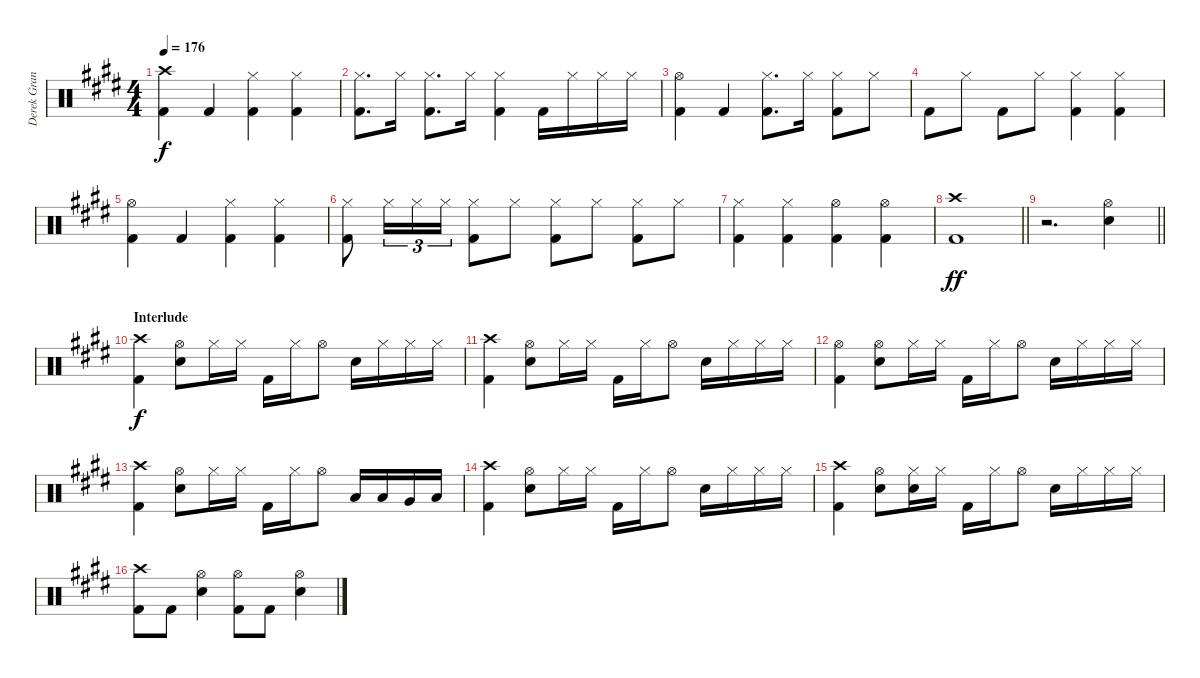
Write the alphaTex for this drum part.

\track ("Derek Grant - Drums" "Derek Gran") {instrument percussion}
\staff {score}
\articulation defaults
\ts (4 4)
\tempo 176
\clef neutral
\ks e
("Crash high (hit)" "Kick (hit) 2").4{dy f} "Kick (hit) 2".4 ("Kick (hit) 2" "Hi-Hat (closed)").4 ("Hi-Hat (closed)" "Kick (hit) 2").4 |
("Kick (hit) 2" "Hi-Hat (closed)").8{d} "Hi-Hat (closed)".16 ("Kick (hit) 2" "Hi-Hat (closed)").8{d} "Hi-Hat (closed)".16 ("Kick (hit) 2" "Hi-Hat (closed)").4 "Kick (hit) 2".16 "Hi-Hat (closed)".16 "Hi-Hat (closed)".16 "Hi-Hat (closed)".16 |
("Hi-Hat (open)" "Kick (hit) 2").4 "Kick (hit) 2".4 ("Kick (hit) 2" "Hi-Hat (closed)").8{d} "Hi-Hat (closed)".16 ("Hi-Hat (closed)" "Kick (hit) 2").8 "Hi-Hat (closed)".8 |
"Kick (hit) 2".8 "Hi-Hat (closed)".8 "Kick (hit) 2".8 "Hi-Hat (closed)".8 ("Hi-Hat (closed)" "Kick (hit) 2").4 ("Hi-Hat (closed)" "Kick (hit) 2").4 |
("Hi-Hat (open)" "Kick (hit) 2").4 "Kick (hit) 2".4 ("Hi-Hat (closed)" "Kick (hit) 2").4 ("Hi-Hat (closed)" "Kick (hit) 2").4 |
("Hi-Hat (closed)" "Kick (hit) 2").8 "Hi-Hat (closed)".16{tu (3 2)} "Hi-Hat (closed)".16{tu (3 2)} "Hi-Hat (closed)".16{tu (3 2)} ("Hi-Hat (closed)" "Kick (hit) 2").8 "Hi-Hat (closed)".8 ("Hi-Hat (closed)" "Kick (hit) 2").8 "Hi-Hat (closed)".8 ("Kick (hit) 2" "Hi-Hat (closed)").8 "Hi-Hat (closed)".8 |
("Hi-Hat (closed)" "Kick (hit) 2").4 ("Hi-Hat (closed)" "Kick (hit) 2").4 ("Hi-Hat (open)" "Kick (hit) 2").4 ("Hi-Hat (open)" "Kick (hit) 2").4 |
\barLineRight lightlight
("Crash high (hit)" "Kick (hit) 2").1{dy ff} |
\barLineRight lightlight
r.2{d} ("Snare (hit) 2" "Hi-Hat (open)").4 |
\section ("" "Interlude")
("Kick (hit) 2" "Crash high (hit)").4{dy f} ("Hi-Hat (open)" "Snare (hit) 2").8 "Hi-Hat (closed)".16 "Hi-Hat (closed)".16 "Kick (hit) 2".16 "Hi-Hat (closed)".16 "Hi-Hat (open)".8 "Snare (hit) 2".16 "Hi-Hat (closed)".16 "Hi-Hat (closed)".16 "Hi-Hat (closed)".16 |
("Kick (hit) 2" "Crash high (hit)").4 ("Hi-Hat (open)" "Snare (hit) 2").8 "Hi-Hat (closed)".16 "Hi-Hat (closed)".16 "Kick (hit) 2".16 "Hi-Hat (closed)".16 "Hi-Hat (open)".8 "Snare (hit) 2".16 "Hi-Hat (closed)".16 "Hi-Hat (closed)".16 "Hi-Hat (closed)".16 |
("Kick (hit) 2" "Hi-Hat (open)").4 ("Hi-Hat (open)" "Snare (hit) 2").8 "Hi-Hat (closed)".16 "Hi-Hat (closed)".16 "Kick (hit) 2".16 "Hi-Hat (closed)".16 "Hi-Hat (open)".8 "Snare (hit) 2".16 "Hi-Hat (closed)".16 "Hi-Hat (closed)".16 "Hi-Hat (closed)".16 |
("Kick (hit) 2" "Crash high (hit)").4 ("Snare (hit) 2" "Hi-Hat (open)").8 "Hi-Hat (closed)".16 "Hi-Hat (closed)".16 "Kick (hit) 2".16 "Hi-Hat (closed)".16 "Hi-Hat (open)".8 "Low Tom (hit)".16 "Low Tom (hit)".16 "Very Low Tom (hit)".16 "Low Floor Tom (hit)".16 |
("Kick (hit) 2" "Crash high (hit)").4 ("Hi-Hat (open)" "Snare (hit) 2").8 "Hi-Hat (closed)".16 "Hi-Hat (closed)".16 "Kick (hit) 2".16 "Hi-Hat (closed)".16 "Hi-Hat (open)".8 "Snare (hit) 2".16 "Hi-Hat (closed)".16 "Hi-Hat (closed)".16 "Hi-Hat (closed)".16 |
("Kick (hit) 2" "Crash high (hit)").4 ("Hi-Hat (open)" "Snare (hit) 2").8 ("Hi-Hat (closed)" "Snare (hit) 2").16 "Hi-Hat (closed)".16 "Kick (hit) 2".16 "Hi-Hat (closed)".16 "Hi-Hat (open)".8 "Snare (hit) 2".16 "Hi-Hat (closed)".16 "Hi-Hat (closed)".16 "Hi-Hat (closed)".16 |
("Crash high (hit)" "Kick (hit) 2").8 "Kick (hit) 2".8 ("Snare (hit) 2" "Hi-Hat (open)").4 ("Hi-Hat (open)" "Kick (hit) 2").8 "Kick (hit) 2".8 ("Snare (hit) 2" "Hi-Hat (open)").4
